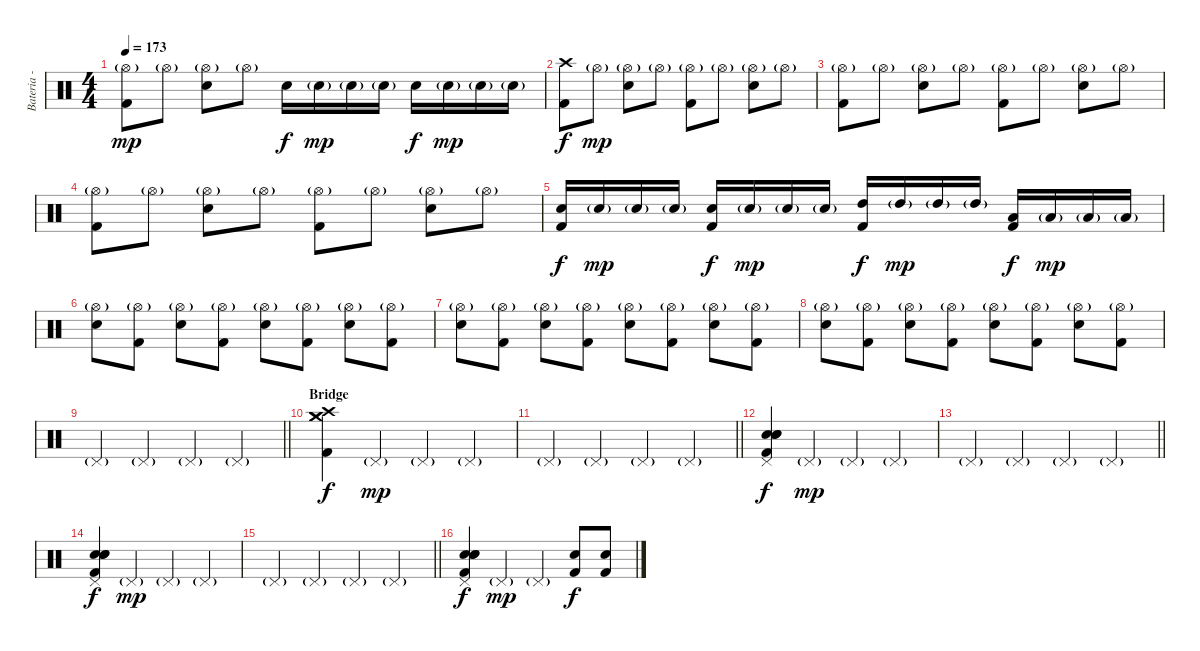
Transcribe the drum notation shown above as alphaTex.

\track ("Bateria - Larzon " "Bateria - ") {instrument percussion}
\staff {score}
\articulation defaults
\ts (4 4)
\tempo 173
\clef neutral
\ks c
("Kick (hit) 2" "Hi-Hat (open)"{g}).8{dy mp} "Hi-Hat (open)"{g}.8 ("Hi-Hat (open)"{g} "Electric Snare (hit)").8 "Hi-Hat (open)"{g}.8 "Electric Snare (hit)".16{dy f} "Electric Snare (hit)"{g}.16{dy mp} "Electric Snare (hit)"{g}.16 "Electric Snare (hit)"{g}.16 "Electric Snare (hit)".16{dy f} "Electric Snare (hit)"{g}.16{dy mp} "Electric Snare (hit)"{g}.16 "Electric Snare (hit)"{g}.16 |
("Kick (hit) 2" "Crash high (hit)").8{dy f} "Hi-Hat (open)"{g}.8{dy mp} ("Hi-Hat (open)"{g} "Electric Snare (hit)").8 "Hi-Hat (open)"{g}.8 ("Kick (hit) 2" "Hi-Hat (open)"{g}).8 "Hi-Hat (open)"{g}.8 ("Hi-Hat (open)"{g} "Electric Snare (hit)").8 "Hi-Hat (open)"{g}.8 |
("Kick (hit) 2" "Hi-Hat (open)"{g}).8 "Hi-Hat (open)"{g}.8 ("Hi-Hat (open)"{g} "Electric Snare (hit)").8 "Hi-Hat (open)"{g}.8 ("Kick (hit) 2" "Hi-Hat (open)"{g}).8 "Hi-Hat (open)"{g}.8 ("Hi-Hat (open)"{g} "Electric Snare (hit)").8 "Hi-Hat (open)"{g}.8 |
("Kick (hit) 2" "Hi-Hat (open)"{g}).8 "Hi-Hat (open)"{g}.8 ("Hi-Hat (open)"{g} "Electric Snare (hit)").8 "Hi-Hat (open)"{g}.8 ("Kick (hit) 2" "Hi-Hat (open)"{g}).8 "Hi-Hat (open)"{g}.8 ("Hi-Hat (open)"{g} "Electric Snare (hit)").8 "Hi-Hat (open)"{g}.8 |
("Electric Snare (hit)" "Kick (hit) 2").16{dy f} "Electric Snare (hit)"{g}.16{dy mp} "Electric Snare (hit)"{g}.16 "Electric Snare (hit)"{g}.16 ("Electric Snare (hit)" "Kick (hit) 2").16{dy f} "Electric Snare (hit)"{g}.16{dy mp} "Electric Snare (hit)"{g}.16 "Electric Snare (hit)"{g}.16 ("High Tom (hit)" "Kick (hit) 2").16{dy f} "High Tom (hit)"{g}.16{dy mp} "High Tom (hit)"{g}.16 "High Tom (hit)"{g}.16 ("Low Tom (hit)" "Kick (hit) 2").16{dy f} "Low Tom (hit)"{g}.16{dy mp} "Low Tom (hit)"{g}.16 "Low Tom (hit)"{g}.16 |
("Electric Snare (hit)" "Hi-Hat (open)"{g}).8 ("Kick (hit) 2" "Hi-Hat (open)"{g}).8 ("Electric Snare (hit)" "Hi-Hat (open)"{g}).8 ("Kick (hit) 2" "Hi-Hat (open)"{g}).8 ("Electric Snare (hit)" "Hi-Hat (open)"{g}).8 ("Kick (hit) 2" "Hi-Hat (open)"{g}).8 ("Electric Snare (hit)" "Hi-Hat (open)"{g}).8 ("Kick (hit) 2" "Hi-Hat (open)"{g}).8 |
("Electric Snare (hit)" "Hi-Hat (open)"{g}).8 ("Kick (hit) 2" "Hi-Hat (open)"{g}).8 ("Electric Snare (hit)" "Hi-Hat (open)"{g}).8 ("Kick (hit) 2" "Hi-Hat (open)"{g}).8 ("Electric Snare (hit)" "Hi-Hat (open)"{g}).8 ("Kick (hit) 2" "Hi-Hat (open)"{g}).8 ("Electric Snare (hit)" "Hi-Hat (open)"{g}).8 ("Kick (hit) 2" "Hi-Hat (open)"{g}).8 |
("Electric Snare (hit)" "Hi-Hat (open)"{g}).8 ("Kick (hit) 2" "Hi-Hat (open)"{g}).8 ("Electric Snare (hit)" "Hi-Hat (open)"{g}).8 ("Kick (hit) 2" "Hi-Hat (open)"{g}).8 ("Electric Snare (hit)" "Hi-Hat (open)"{g}).8 ("Kick (hit) 2" "Hi-Hat (open)"{g}).8 ("Electric Snare (hit)" "Hi-Hat (open)"{g}).8 ("Kick (hit) 2" "Hi-Hat (open)"{g}).8 |
\barLineRight lightlight "Pedal Hi-Hat (hit)"{g}.4 "Pedal Hi-Hat (hit)"{g}.4 "Pedal Hi-Hat (hit)"{g}.4 "Pedal Hi-Hat (hit)"{g}.4
|
\section ("" "Bridge")
("Crash high (hit)" "Crash medium (hit)" "Crash medium (hit)" "Kick (hit) 2").4{dy f} "Pedal Hi-Hat (hit)"{g}.4{dy mp} "Pedal Hi-Hat (hit)"{g}.4 "Pedal Hi-Hat (hit)"{g}.4 |
\barLineRight lightlight "Pedal Hi-Hat (hit)"{g}.4 "Pedal Hi-Hat (hit)"{g}.4 "Pedal Hi-Hat (hit)"{g}.4 "Pedal Hi-Hat (hit)"{g}.4
|
("Snare (hit) 2" "Electric Snare (hit)" "Pedal Hi-Hat (hit)" "Electric Snare (hit)" "Kick (hit) 2").4{dy f} "Pedal Hi-Hat (hit)"{g}.4{dy mp} "Pedal Hi-Hat (hit)"{g}.4 "Pedal Hi-Hat (hit)"{g}.4 |
\barLineRight lightlight "Pedal Hi-Hat (hit)"{g}.4 "Pedal Hi-Hat (hit)"{g}.4 "Pedal Hi-Hat (hit)"{g}.4 "Pedal Hi-Hat (hit)"{g}.4
|
("Snare (hit) 2" "Electric Snare (hit)" "Pedal Hi-Hat (hit)" "Electric Snare (hit)" "Kick (hit) 2").4{dy f} "Pedal Hi-Hat (hit)"{g}.4{dy mp} "Pedal Hi-Hat (hit)"{g}.4 "Pedal Hi-Hat (hit)"{g}.4 |
\barLineRight lightlight "Pedal Hi-Hat (hit)"{g}.4 "Pedal Hi-Hat (hit)"{g}.4 "Pedal Hi-Hat (hit)"{g}.4 "Pedal Hi-Hat (hit)"{g}.4
|
("Snare (hit) 2" "Electric Snare (hit)" "Pedal Hi-Hat (hit)" "Electric Snare (hit)" "Kick (hit) 2").4{dy f} "Pedal Hi-Hat (hit)"{g}.4{dy mp} "Pedal Hi-Hat (hit)"{g}.4 ("Electric Snare (hit)" "Kick (hit) 2").8{dy f} ("Electric Snare (hit)" "Kick (hit) 2").8
